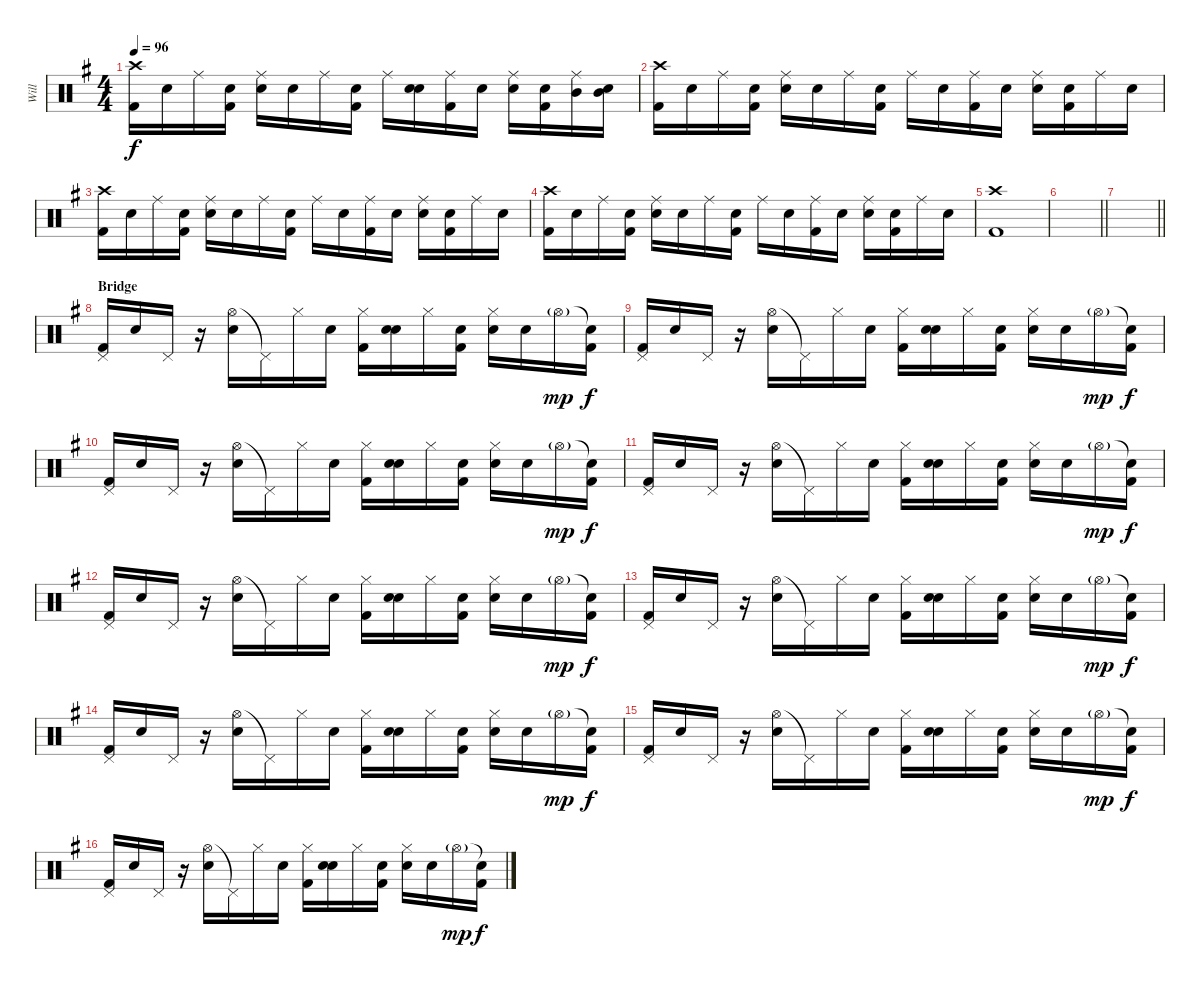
\track ("Will" "Will") {instrument percussion}
\staff {score}
\articulation defaults
\ts (4 4)
\tempo 96
\clef neutral
\ks g
("Crash high (hit)" "Kick (hit) 2").16{dy f} "Snare (hit)".16 "Ride (middle)".16 ("Snare (hit)" "Kick (hit) 2").16 ("Ride (middle)" "Snare (hit) 2").16 "Snare (hit)".16 "Ride (middle)".16 ("Snare (hit)" "Kick (hit) 2").16 "Ride (middle)".16 ("Snare (hit)" "Snare (hit) 2").16 ("Ride (middle)" "Kick (hit) 2").16 "Snare (hit)".16 ("Ride (middle)" "Snare (hit) 2").16 ("Snare (hit)" "Kick (hit) 2").16 ("Ride (middle)" "Mid Tom (hit)").16 ("Snare (hit)" "Mid Tom (hit)").16 |
("Crash high (hit)" "Kick (hit) 2").16 "Snare (hit)".16 "Ride (middle)".16 ("Snare (hit)" "Kick (hit) 2").16 ("Ride (middle)" "Snare (hit) 2").16 "Snare (hit)".16 "Ride (middle)".16 ("Snare (hit)" "Kick (hit) 2").16 "Ride (middle)".16 "Snare (hit)".16 ("Ride (middle)" "Kick (hit) 2").16 "Snare (hit)".16 ("Ride (middle)" "Snare (hit) 2").16 ("Snare (hit)" "Kick (hit) 2").16 "Ride (middle)".16 "Snare (hit)".16 |
("Crash high (hit)" "Kick (hit) 2").16 "Snare (hit)".16 "Ride (middle)".16 ("Snare (hit)" "Kick (hit) 2").16 ("Ride (middle)" "Snare (hit) 2").16 "Snare (hit)".16 "Ride (middle)".16 ("Snare (hit)" "Kick (hit) 2").16 "Ride (middle)".16 "Snare (hit)".16 ("Ride (middle)" "Kick (hit) 2").16 "Snare (hit)".16 ("Ride (middle)" "Snare (hit) 2").16 ("Snare (hit)" "Kick (hit) 2").16 "Ride (middle)".16 "Snare (hit)".16 |
("Crash high (hit)" "Kick (hit) 2").16 "Snare (hit)".16 "Ride (middle)".16 ("Snare (hit)" "Kick (hit) 2").16 ("Ride (middle)" "Snare (hit) 2").16 "Snare (hit)".16 "Ride (middle)".16 ("Snare (hit)" "Kick (hit) 2").16 "Ride (middle)".16 "Snare (hit)".16 ("Ride (middle)" "Kick (hit) 2").16 "Snare (hit)".16 ("Ride (middle)" "Snare (hit) 2").16 ("Snare (hit)" "Kick (hit) 2").16 "Ride (middle)".16 "Snare (hit)".16 |
("Crash high (hit)" "Kick (hit) 2").1 |
\barLineRight lightlight
|
\barLineRight lightlight
|
\section ("" "Bridge")
("Pedal Hi-Hat (hit)" "Kick (hit) 2").16 "Snare (hit)".16 "Pedal Hi-Hat (hit)".16 r.16 ("Hi-Hat (open)" "Snare (hit) 2").16 "Pedal Hi-Hat (hit)"{t}.16 "Hi-Hat (closed)".16 "Snare (hit)".16 ("Hi-Hat (closed)" "Kick (hit) 2").16 ("Snare (hit)" "Snare (hit) 2").16 "Hi-Hat (closed)".16 ("Snare (hit)" "Kick (hit) 2").16 ("Hi-Hat (closed)" "Snare (hit) 2").16 "Snare (hit)".16 "Hi-Hat (open)"{g}.16{dy mp} ("Snare (hit)"{t} "Kick (hit) 2").16{dy f} |
("Pedal Hi-Hat (hit)" "Kick (hit) 2").16 "Snare (hit)".16 "Pedal Hi-Hat (hit)".16 r.16 ("Hi-Hat (open)" "Snare (hit) 2").16 "Pedal Hi-Hat (hit)"{t}.16 "Hi-Hat (closed)".16 "Snare (hit)".16 ("Hi-Hat (closed)" "Kick (hit) 2").16 ("Snare (hit)" "Snare (hit) 2").16 "Hi-Hat (closed)".16 ("Snare (hit)" "Kick (hit) 2").16 ("Hi-Hat (closed)" "Snare (hit) 2").16 "Snare (hit)".16 "Hi-Hat (open)"{g}.16{dy mp} ("Snare (hit)"{t} "Kick (hit) 2").16{dy f} |
("Pedal Hi-Hat (hit)" "Kick (hit) 2").16 "Snare (hit)".16 "Pedal Hi-Hat (hit)".16 r.16 ("Hi-Hat (open)" "Snare (hit) 2").16 "Pedal Hi-Hat (hit)"{t}.16 "Hi-Hat (closed)".16 "Snare (hit)".16 ("Hi-Hat (closed)" "Kick (hit) 2").16 ("Snare (hit)" "Snare (hit) 2").16 "Hi-Hat (closed)".16 ("Snare (hit)" "Kick (hit) 2").16 ("Hi-Hat (closed)" "Snare (hit) 2").16 "Snare (hit)".16 "Hi-Hat (open)"{g}.16{dy mp} ("Snare (hit)"{t} "Kick (hit) 2").16{dy f} |
("Pedal Hi-Hat (hit)" "Kick (hit) 2").16 "Snare (hit)".16 "Pedal Hi-Hat (hit)".16 r.16 ("Hi-Hat (open)" "Snare (hit) 2").16 "Pedal Hi-Hat (hit)"{t}.16 "Hi-Hat (closed)".16 "Snare (hit)".16 ("Hi-Hat (closed)" "Kick (hit) 2").16 ("Snare (hit)" "Snare (hit) 2").16 "Hi-Hat (closed)".16 ("Snare (hit)" "Kick (hit) 2").16 ("Hi-Hat (closed)" "Snare (hit) 2").16 "Snare (hit)".16 "Hi-Hat (open)"{g}.16{dy mp} ("Snare (hit)"{t} "Kick (hit) 2").16{dy f} |
("Pedal Hi-Hat (hit)" "Kick (hit) 2").16 "Snare (hit)".16 "Pedal Hi-Hat (hit)".16 r.16 ("Hi-Hat (open)" "Snare (hit) 2").16 "Pedal Hi-Hat (hit)"{t}.16 "Hi-Hat (closed)".16 "Snare (hit)".16 ("Hi-Hat (closed)" "Kick (hit) 2").16 ("Snare (hit)" "Snare (hit) 2").16 "Hi-Hat (closed)".16 ("Snare (hit)" "Kick (hit) 2").16 ("Hi-Hat (closed)" "Snare (hit) 2").16 "Snare (hit)".16 "Hi-Hat (open)"{g}.16{dy mp} ("Snare (hit)"{t} "Kick (hit) 2").16{dy f} |
("Pedal Hi-Hat (hit)" "Kick (hit) 2").16 "Snare (hit)".16 "Pedal Hi-Hat (hit)".16 r.16 ("Hi-Hat (open)" "Snare (hit) 2").16 "Pedal Hi-Hat (hit)"{t}.16 "Hi-Hat (closed)".16 "Snare (hit)".16 ("Hi-Hat (closed)" "Kick (hit) 2").16 ("Snare (hit)" "Snare (hit) 2").16 "Hi-Hat (closed)".16 ("Snare (hit)" "Kick (hit) 2").16 ("Hi-Hat (closed)" "Snare (hit) 2").16 "Snare (hit)".16 "Hi-Hat (open)"{g}.16{dy mp} ("Snare (hit)"{t} "Kick (hit) 2").16{dy f} |
("Pedal Hi-Hat (hit)" "Kick (hit) 2").16 "Snare (hit)".16 "Pedal Hi-Hat (hit)".16 r.16 ("Hi-Hat (open)" "Snare (hit) 2").16 "Pedal Hi-Hat (hit)"{t}.16 "Hi-Hat (closed)".16 "Snare (hit)".16 ("Hi-Hat (closed)" "Kick (hit) 2").16 ("Snare (hit)" "Snare (hit) 2").16 "Hi-Hat (closed)".16 ("Snare (hit)" "Kick (hit) 2").16 ("Hi-Hat (closed)" "Snare (hit) 2").16 "Snare (hit)".16 "Hi-Hat (open)"{g}.16{dy mp} ("Snare (hit)"{t} "Kick (hit) 2").16{dy f} |
("Pedal Hi-Hat (hit)" "Kick (hit) 2").16 "Snare (hit)".16 "Pedal Hi-Hat (hit)".16 r.16 ("Hi-Hat (open)" "Snare (hit) 2").16 "Pedal Hi-Hat (hit)"{t}.16 "Hi-Hat (closed)".16 "Snare (hit)".16 ("Hi-Hat (closed)" "Kick (hit) 2").16 ("Snare (hit)" "Snare (hit) 2").16 "Hi-Hat (closed)".16 ("Snare (hit)" "Kick (hit) 2").16 ("Hi-Hat (closed)" "Snare (hit) 2").16 "Snare (hit)".16 "Hi-Hat (open)"{g}.16{dy mp} ("Snare (hit)"{t} "Kick (hit) 2").16{dy f} |
("Pedal Hi-Hat (hit)" "Kick (hit) 2").16 "Snare (hit)".16 "Pedal Hi-Hat (hit)".16 r.16 ("Hi-Hat (open)" "Snare (hit) 2").16 "Pedal Hi-Hat (hit)"{t}.16 "Hi-Hat (closed)".16 "Snare (hit)".16 ("Hi-Hat (closed)" "Kick (hit) 2").16 ("Snare (hit)" "Snare (hit) 2").16 "Hi-Hat (closed)".16 ("Snare (hit)" "Kick (hit) 2").16 ("Hi-Hat (closed)" "Snare (hit) 2").16 "Snare (hit)".16 "Hi-Hat (open)"{g}.16{dy mp} ("Snare (hit)"{t} "Kick (hit) 2").16{dy f}
